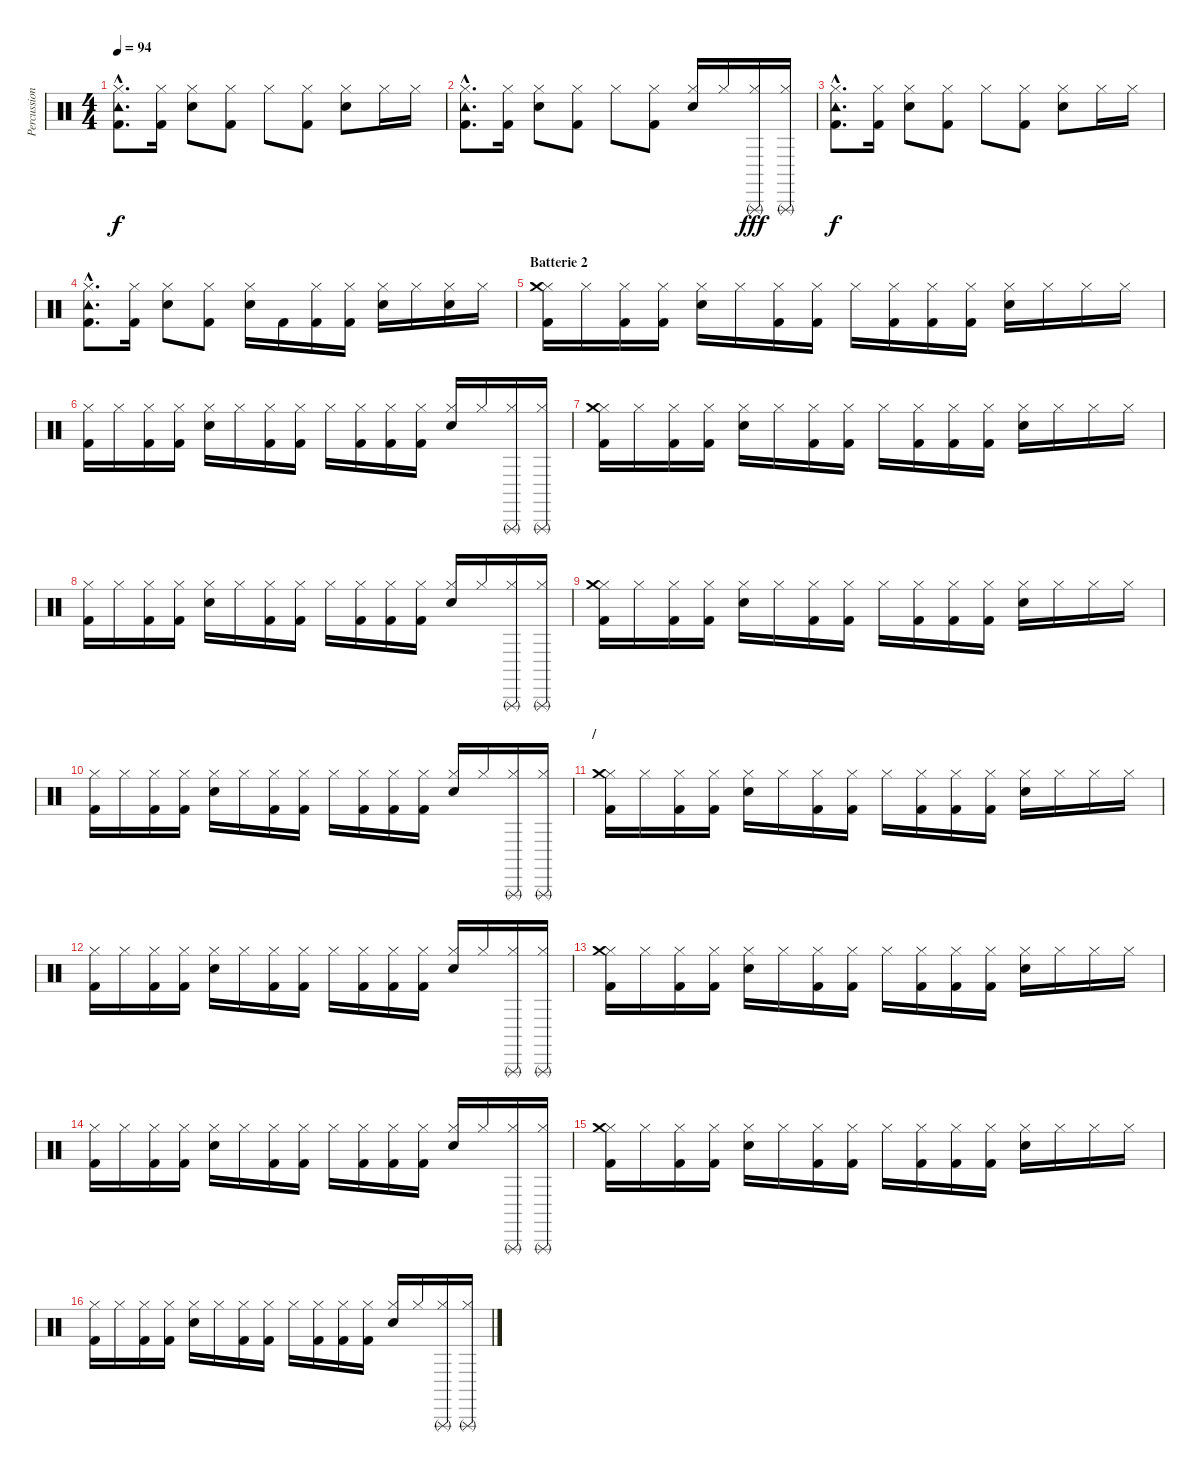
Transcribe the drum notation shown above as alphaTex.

\track ("Percussions" "Percussion") {instrument percussion}
\staff {score}
\articulation defaults
\ts (4 4)
\tempo 94
\clef neutral
\ks c
("Hi-Hat (closed)"{hac} "Tambourine (hit)"{hac} "Kick (hit) 2"{hac}).8{d dy f} ("Hi-Hat (closed)" "Kick (hit) 2").16 ("Hi-Hat (closed)" "Electric Snare (hit)").8 ("Hi-Hat (closed)" "Kick (hit) 2").8 "Hi-Hat (closed)".8 ("Hi-Hat (closed)" "Kick (hit) 2").8 ("Hi-Hat (closed)" "Electric Snare (hit)").8 "Hi-Hat (closed)".16 "Hi-Hat (closed)".16 |
("Hi-Hat (closed)"{hac} "Tambourine (hit)"{hac} "Kick (hit) 2"{hac}).8{d} ("Hi-Hat (closed)" "Kick (hit) 2").16 ("Hi-Hat (closed)" "Electric Snare (hit)").8 ("Hi-Hat (closed)" "Kick (hit) 2").8 "Hi-Hat (closed)".8 ("Hi-Hat (closed)" "Kick (hit) 2").8 ("Hi-Hat (closed)" "Electric Snare (hit)").16 "Hi-Hat (closed)".16 ("Hi-Hat (closed)" "Triangle (rnute)").16{dy fff} ("Hi-Hat (closed)" "Triangle (rnute)").16 |
("Hi-Hat (closed)"{hac} "Tambourine (hit)"{hac} "Kick (hit) 2"{hac}).8{d dy f} ("Hi-Hat (closed)" "Kick (hit) 2").16 ("Hi-Hat (closed)" "Electric Snare (hit)").8 ("Hi-Hat (closed)" "Kick (hit) 2").8 "Hi-Hat (closed)".8 ("Hi-Hat (closed)" "Kick (hit) 2").8 ("Hi-Hat (closed)" "Electric Snare (hit)").8 "Hi-Hat (closed)".16 "Hi-Hat (closed)".16 |
("Hi-Hat (closed)"{hac} "Tambourine (hit)"{hac} "Kick (hit) 2"{hac}).8{d} ("Hi-Hat (closed)" "Kick (hit) 2").16 ("Hi-Hat (closed)" "Electric Snare (hit)").8 ("Hi-Hat (closed)" "Kick (hit) 2").8 ("Hi-Hat (closed)" "Electric Snare (hit)").16 "Kick (hit) 2".16 ("Hi-Hat (closed)" "Kick (hit) 2").16 ("Hi-Hat (closed)" "Kick (hit) 2").16 ("Hi-Hat (closed)" "Electric Snare (hit)").16 "Hi-Hat (closed)".16 ("Hi-Hat (closed)" "Electric Snare (hit)").16 "Hi-Hat (closed)".16 |
\section ("" "Batterie 2")
("Hi-Hat (closed)" "Crash medium (hit)" "Kick (hit) 2").16 "Hi-Hat (closed)".16 ("Hi-Hat (closed)" "Kick (hit) 2").16 ("Hi-Hat (closed)" "Kick (hit) 2").16 ("Hi-Hat (closed)" "Electric Snare (hit)").16 "Hi-Hat (closed)".16 ("Hi-Hat (closed)" "Kick (hit) 2").16 ("Hi-Hat (closed)" "Kick (hit) 2").16 "Hi-Hat (closed)".16 ("Hi-Hat (closed)" "Kick (hit) 2").16 ("Hi-Hat (closed)" "Kick (hit) 2").16 ("Hi-Hat (closed)" "Kick (hit) 2").16 ("Hi-Hat (closed)" "Electric Snare (hit)").16 "Hi-Hat (closed)".16 "Hi-Hat (closed)".16 "Hi-Hat (closed)".16 |
("Hi-Hat (closed)" "Kick (hit) 2").16 "Hi-Hat (closed)".16 ("Hi-Hat (closed)" "Kick (hit) 2").16 ("Hi-Hat (closed)" "Kick (hit) 2").16 ("Hi-Hat (closed)" "Electric Snare (hit)").16 "Hi-Hat (closed)".16 ("Hi-Hat (closed)" "Kick (hit) 2").16 ("Hi-Hat (closed)" "Kick (hit) 2").16 "Hi-Hat (closed)".16 ("Hi-Hat (closed)" "Kick (hit) 2").16 ("Hi-Hat (closed)" "Kick (hit) 2").16 ("Hi-Hat (closed)" "Kick (hit) 2").16 ("Hi-Hat (closed)" "Electric Snare (hit)").16 "Hi-Hat (closed)".16 ("Hi-Hat (closed)" "Triangle (rnute)").16 ("Hi-Hat (closed)" "Triangle (rnute)").16 |
("Hi-Hat (closed)" "Crash medium (hit)" "Kick (hit) 2").16 "Hi-Hat (closed)".16 ("Hi-Hat (closed)" "Kick (hit) 2").16 ("Hi-Hat (closed)" "Kick (hit) 2").16 ("Hi-Hat (closed)" "Electric Snare (hit)").16 "Hi-Hat (closed)".16 ("Hi-Hat (closed)" "Kick (hit) 2").16 ("Hi-Hat (closed)" "Kick (hit) 2").16 "Hi-Hat (closed)".16 ("Hi-Hat (closed)" "Kick (hit) 2").16 ("Hi-Hat (closed)" "Kick (hit) 2").16 ("Hi-Hat (closed)" "Kick (hit) 2").16 ("Hi-Hat (closed)" "Electric Snare (hit)").16 "Hi-Hat (closed)".16 "Hi-Hat (closed)".16 "Hi-Hat (closed)".16 |
("Hi-Hat (closed)" "Kick (hit) 2").16 "Hi-Hat (closed)".16 ("Hi-Hat (closed)" "Kick (hit) 2").16 ("Hi-Hat (closed)" "Kick (hit) 2").16 ("Hi-Hat (closed)" "Electric Snare (hit)").16 "Hi-Hat (closed)".16 ("Hi-Hat (closed)" "Kick (hit) 2").16 ("Hi-Hat (closed)" "Kick (hit) 2").16 "Hi-Hat (closed)".16 ("Hi-Hat (closed)" "Kick (hit) 2").16 ("Hi-Hat (closed)" "Kick (hit) 2").16 ("Hi-Hat (closed)" "Kick (hit) 2").16 ("Hi-Hat (closed)" "Electric Snare (hit)").16 "Hi-Hat (closed)".16 ("Hi-Hat (closed)" "Triangle (rnute)").16 ("Hi-Hat (closed)" "Triangle (rnute)").16 |
("Hi-Hat (closed)" "Crash medium (hit)" "Kick (hit) 2").16 "Hi-Hat (closed)".16 ("Hi-Hat (closed)" "Kick (hit) 2").16 ("Hi-Hat (closed)" "Kick (hit) 2").16 ("Hi-Hat (closed)" "Electric Snare (hit)").16 "Hi-Hat (closed)".16 ("Hi-Hat (closed)" "Kick (hit) 2").16 ("Hi-Hat (closed)" "Kick (hit) 2").16 "Hi-Hat (closed)".16 ("Hi-Hat (closed)" "Kick (hit) 2").16 ("Hi-Hat (closed)" "Kick (hit) 2").16 ("Hi-Hat (closed)" "Kick (hit) 2").16 ("Hi-Hat (closed)" "Electric Snare (hit)").16 "Hi-Hat (closed)".16 "Hi-Hat (closed)".16 "Hi-Hat (closed)".16 |
("Hi-Hat (closed)" "Kick (hit) 2").16 "Hi-Hat (closed)".16 ("Hi-Hat (closed)" "Kick (hit) 2").16 ("Hi-Hat (closed)" "Kick (hit) 2").16 ("Hi-Hat (closed)" "Electric Snare (hit)").16 "Hi-Hat (closed)".16 ("Hi-Hat (closed)" "Kick (hit) 2").16 ("Hi-Hat (closed)" "Kick (hit) 2").16 "Hi-Hat (closed)".16 ("Hi-Hat (closed)" "Kick (hit) 2").16 ("Hi-Hat (closed)" "Kick (hit) 2").16 ("Hi-Hat (closed)" "Kick (hit) 2").16 ("Hi-Hat (closed)" "Electric Snare (hit)").16 "Hi-Hat (closed)".16 ("Hi-Hat (closed)" "Triangle (rnute)").16 ("Hi-Hat (closed)" "Triangle (rnute)").16 |
\section ("" "/")
("Hi-Hat (closed)" "Crash medium (hit)" "Kick (hit) 2").16 "Hi-Hat (closed)".16 ("Hi-Hat (closed)" "Kick (hit) 2").16 ("Hi-Hat (closed)" "Kick (hit) 2").16 ("Hi-Hat (closed)" "Electric Snare (hit)").16 "Hi-Hat (closed)".16 ("Hi-Hat (closed)" "Kick (hit) 2").16 ("Hi-Hat (closed)" "Kick (hit) 2").16 "Hi-Hat (closed)".16 ("Hi-Hat (closed)" "Kick (hit) 2").16 ("Hi-Hat (closed)" "Kick (hit) 2").16 ("Hi-Hat (closed)" "Kick (hit) 2").16 ("Hi-Hat (closed)" "Electric Snare (hit)").16 "Hi-Hat (closed)".16 "Hi-Hat (closed)".16 "Hi-Hat (closed)".16 |
("Hi-Hat (closed)" "Kick (hit) 2").16 "Hi-Hat (closed)".16 ("Hi-Hat (closed)" "Kick (hit) 2").16 ("Hi-Hat (closed)" "Kick (hit) 2").16 ("Hi-Hat (closed)" "Electric Snare (hit)").16 "Hi-Hat (closed)".16 ("Hi-Hat (closed)" "Kick (hit) 2").16 ("Hi-Hat (closed)" "Kick (hit) 2").16 "Hi-Hat (closed)".16 ("Hi-Hat (closed)" "Kick (hit) 2").16 ("Hi-Hat (closed)" "Kick (hit) 2").16 ("Hi-Hat (closed)" "Kick (hit) 2").16 ("Hi-Hat (closed)" "Electric Snare (hit)").16 "Hi-Hat (closed)".16 ("Hi-Hat (closed)" "Triangle (rnute)").16 ("Hi-Hat (closed)" "Triangle (rnute)").16 |
("Hi-Hat (closed)" "Crash medium (hit)" "Kick (hit) 2").16 "Hi-Hat (closed)".16 ("Hi-Hat (closed)" "Kick (hit) 2").16 ("Hi-Hat (closed)" "Kick (hit) 2").16 ("Hi-Hat (closed)" "Electric Snare (hit)").16 "Hi-Hat (closed)".16 ("Hi-Hat (closed)" "Kick (hit) 2").16 ("Hi-Hat (closed)" "Kick (hit) 2").16 "Hi-Hat (closed)".16 ("Hi-Hat (closed)" "Kick (hit) 2").16 ("Hi-Hat (closed)" "Kick (hit) 2").16 ("Hi-Hat (closed)" "Kick (hit) 2").16 ("Hi-Hat (closed)" "Electric Snare (hit)").16 "Hi-Hat (closed)".16 "Hi-Hat (closed)".16 "Hi-Hat (closed)".16 |
("Hi-Hat (closed)" "Kick (hit) 2").16 "Hi-Hat (closed)".16 ("Hi-Hat (closed)" "Kick (hit) 2").16 ("Hi-Hat (closed)" "Kick (hit) 2").16 ("Hi-Hat (closed)" "Electric Snare (hit)").16 "Hi-Hat (closed)".16 ("Hi-Hat (closed)" "Kick (hit) 2").16 ("Hi-Hat (closed)" "Kick (hit) 2").16 "Hi-Hat (closed)".16 ("Hi-Hat (closed)" "Kick (hit) 2").16 ("Hi-Hat (closed)" "Kick (hit) 2").16 ("Hi-Hat (closed)" "Kick (hit) 2").16 ("Hi-Hat (closed)" "Electric Snare (hit)").16 "Hi-Hat (closed)".16 ("Hi-Hat (closed)" "Triangle (rnute)").16 ("Hi-Hat (closed)" "Triangle (rnute)").16 |
("Hi-Hat (closed)" "Crash medium (hit)" "Kick (hit) 2").16 "Hi-Hat (closed)".16 ("Hi-Hat (closed)" "Kick (hit) 2").16 ("Hi-Hat (closed)" "Kick (hit) 2").16 ("Hi-Hat (closed)" "Electric Snare (hit)").16 "Hi-Hat (closed)".16 ("Hi-Hat (closed)" "Kick (hit) 2").16 ("Hi-Hat (closed)" "Kick (hit) 2").16 "Hi-Hat (closed)".16 ("Hi-Hat (closed)" "Kick (hit) 2").16 ("Hi-Hat (closed)" "Kick (hit) 2").16 ("Hi-Hat (closed)" "Kick (hit) 2").16 ("Hi-Hat (closed)" "Electric Snare (hit)").16 "Hi-Hat (closed)".16 "Hi-Hat (closed)".16 "Hi-Hat (closed)".16 |
("Hi-Hat (closed)" "Kick (hit) 2").16 "Hi-Hat (closed)".16 ("Hi-Hat (closed)" "Kick (hit) 2").16 ("Hi-Hat (closed)" "Kick (hit) 2").16 ("Hi-Hat (closed)" "Electric Snare (hit)").16 "Hi-Hat (closed)".16 ("Hi-Hat (closed)" "Kick (hit) 2").16 ("Hi-Hat (closed)" "Kick (hit) 2").16 "Hi-Hat (closed)".16 ("Hi-Hat (closed)" "Kick (hit) 2").16 ("Hi-Hat (closed)" "Kick (hit) 2").16 ("Hi-Hat (closed)" "Kick (hit) 2").16 ("Hi-Hat (closed)" "Electric Snare (hit)").16 "Hi-Hat (closed)".16 ("Hi-Hat (closed)" "Triangle (rnute)").16 ("Hi-Hat (closed)" "Triangle (rnute)").16
